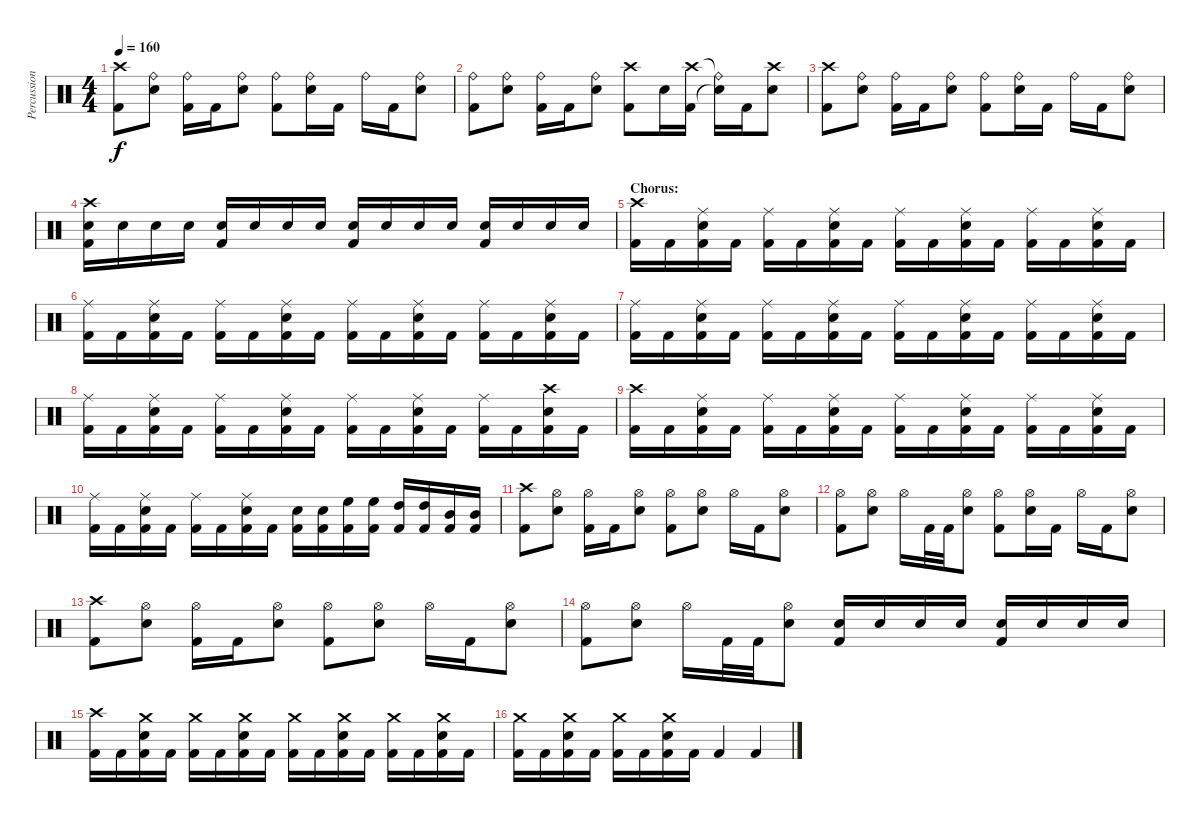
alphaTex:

\track ("Percussion" "Percussion") {instrument percussion}
\staff {score}
\articulation defaults
\ts (4 4)
\tempo 160
\clef neutral
\ks c
("Crash high (hit)" "Kick (hit) 2").8{dy f} ("Ride (bell)" "Electric Snare (hit)").8 ("Ride (bell)" "Kick (hit) 2").16 "Kick (hit) 2".16 ("Ride (bell)" "Electric Snare (hit)").8 ("Ride (bell)" "Kick (hit) 2").8 ("Ride (bell)" "Electric Snare (hit)").16 "Kick (hit) 2".16 "Ride (bell)".16 "Kick (hit) 2".16 ("Ride (bell)" "Electric Snare (hit)").8 |
("Ride (bell)" "Kick (hit) 2").8 ("Ride (bell)" "Electric Snare (hit)").8 ("Ride (bell)" "Kick (hit) 2").16 "Kick (hit) 2".16 ("Ride (bell)" "Electric Snare (hit)").8 ("Crash high (hit)" "Kick (hit) 2").8 "Electric Snare (hit)".16 ("Crash high (hit)" "Kick (hit) 2").16 ("Ride (bell)"{t} "Snare (hit)"{t}).16 "Kick (hit) 2".16 ("Crash high (hit)" "Electric Snare (hit)").8 |
("Crash high (hit)" "Kick (hit) 2").8 ("Ride (bell)" "Electric Snare (hit)").8 ("Ride (bell)" "Kick (hit) 2").16 "Kick (hit) 2".16 ("Ride (bell)" "Electric Snare (hit)").8 ("Ride (bell)" "Kick (hit) 2").8 ("Ride (bell)" "Electric Snare (hit)").16 "Kick (hit) 2".16 "Ride (bell)".16 "Kick (hit) 2".16 ("Ride (bell)" "Electric Snare (hit)").8 |
("Crash high (hit)" "Electric Snare (hit)" "Kick (hit) 2").16 "Electric Snare (hit)".16 "Electric Snare (hit)".16 "Electric Snare (hit)".16 ("Electric Snare (hit)" "Kick (hit) 2").16 "Electric Snare (hit)".16 "Electric Snare (hit)".16 "Electric Snare (hit)".16 ("Electric Snare (hit)" "Kick (hit) 2").16 "Electric Snare (hit)".16 "Electric Snare (hit)".16 "Electric Snare (hit)".16 ("Electric Snare (hit)" "Kick (hit) 2").16 "Electric Snare (hit)".16 "Electric Snare (hit)".16 "Electric Snare (hit)".16 |
\section ("" "Chorus:")
("Crash high (hit)" "Kick (hit) 2").16 "Kick (hit) 2".16 ("Ride (middle)" "Electric Snare (hit)" "Kick (hit) 2").16 "Kick (hit) 2".16 ("Ride (middle)" "Kick (hit) 2").16 "Kick (hit) 2".16 ("Ride (middle)" "Electric Snare (hit)" "Kick (hit) 2").16 "Kick (hit) 2".16 ("Ride (middle)" "Kick (hit) 2").16 "Kick (hit) 2".16 ("Ride (middle)" "Electric Snare (hit)" "Kick (hit) 2").16 "Kick (hit) 2".16 ("Ride (middle)" "Kick (hit) 2").16 "Kick (hit) 2".16 ("Ride (middle)" "Electric Snare (hit)" "Kick (hit) 2").16 "Kick (hit) 2".16 |
("Ride (middle)" "Kick (hit) 2").16 "Kick (hit) 2".16 ("Ride (middle)" "Electric Snare (hit)" "Kick (hit) 2").16 "Kick (hit) 2".16 ("Ride (middle)" "Kick (hit) 2").16 "Kick (hit) 2".16 ("Ride (middle)" "Electric Snare (hit)" "Kick (hit) 2").16 "Kick (hit) 2".16 ("Ride (middle)" "Kick (hit) 2").16 "Kick (hit) 2".16 ("Ride (middle)" "Electric Snare (hit)" "Kick (hit) 2").16 "Kick (hit) 2".16 ("Ride (middle)" "Kick (hit) 2").16 "Kick (hit) 2".16 ("Ride (middle)" "Electric Snare (hit)" "Kick (hit) 2").16 "Kick (hit) 2".16 |
("Ride (middle)" "Kick (hit) 2").16 "Kick (hit) 2".16 ("Ride (middle)" "Electric Snare (hit)" "Kick (hit) 2").16 "Kick (hit) 2".16 ("Ride (middle)" "Kick (hit) 2").16 "Kick (hit) 2".16 ("Ride (middle)" "Electric Snare (hit)" "Kick (hit) 2").16 "Kick (hit) 2".16 ("Ride (middle)" "Kick (hit) 2").16 "Kick (hit) 2".16 ("Ride (middle)" "Electric Snare (hit)" "Kick (hit) 2").16 "Kick (hit) 2".16 ("Ride (middle)" "Kick (hit) 2").16 "Kick (hit) 2".16 ("Ride (middle)" "Electric Snare (hit)" "Kick (hit) 2").16 "Kick (hit) 2".16 |
("Ride (middle)" "Kick (hit) 2").16 "Kick (hit) 2".16 ("Ride (middle)" "Electric Snare (hit)" "Kick (hit) 2").16 "Kick (hit) 2".16 ("Ride (middle)" "Kick (hit) 2").16 "Kick (hit) 2".16 ("Ride (middle)" "Electric Snare (hit)" "Kick (hit) 2").16 "Kick (hit) 2".16 ("Ride (middle)" "Kick (hit) 2").16 "Kick (hit) 2".16 ("Ride (middle)" "Electric Snare (hit)" "Kick (hit) 2").16 "Kick (hit) 2".16 ("Ride (middle)" "Kick (hit) 2").16 "Kick (hit) 2".16 ("Crash high (hit)" "Electric Snare (hit)" "Kick (hit) 2").16 "Kick (hit) 2".16 |
("Crash high (hit)" "Kick (hit) 2").16 "Kick (hit) 2".16 ("Ride (middle)" "Electric Snare (hit)" "Kick (hit) 2").16 "Kick (hit) 2".16 ("Ride (middle)" "Kick (hit) 2").16 "Kick (hit) 2".16 ("Ride (middle)" "Electric Snare (hit)" "Kick (hit) 2").16 "Kick (hit) 2".16 ("Ride (middle)" "Kick (hit) 2").16 "Kick (hit) 2".16 ("Ride (middle)" "Electric Snare (hit)" "Kick (hit) 2").16 "Kick (hit) 2".16 ("Ride (middle)" "Kick (hit) 2").16 "Kick (hit) 2".16 ("Ride (middle)" "Electric Snare (hit)" "Kick (hit) 2").16 "Kick (hit) 2".16 |
("Ride (middle)" "Kick (hit) 2").16 "Kick (hit) 2".16 ("Ride (middle)" "Electric Snare (hit)" "Kick (hit) 2").16 "Kick (hit) 2".16 ("Ride (middle)" "Kick (hit) 2").16 "Kick (hit) 2".16 ("Ride (middle)" "Electric Snare (hit)" "Kick (hit) 2").16 "Kick (hit) 2".16 ("Electric Snare (hit)" "Kick (hit) 2").16 ("Electric Snare (hit)" "Kick (hit) 2").16 ("High Floor Tom (hit)" "Kick (hit) 2").16 ("High Floor Tom (hit)" "Kick (hit) 2").16 ("High Tom (hit)" "Kick (hit) 2").16 ("High Tom (hit)" "Kick (hit) 2").16 ("Mid Tom (hit)" "Kick (hit) 2").16 ("Mid Tom (hit)" "Kick (hit) 2").16 |
("Crash high (hit)" "Kick (hit) 2").8 ("Hi-Hat (open)" "Electric Snare (hit)").8 ("Hi-Hat (open)" "Kick (hit) 2").16 "Kick (hit) 2".16 ("Hi-Hat (open)" "Electric Snare (hit)").8 ("Hi-Hat (open)" "Kick (hit) 2").8 ("Hi-Hat (open)" "Electric Snare (hit)").8 "Hi-Hat (open)".16 "Kick (hit) 2".16 ("Hi-Hat (open)" "Electric Snare (hit)").8 |
("Hi-Hat (open)" "Kick (hit) 2").8 ("Hi-Hat (open)" "Electric Snare (hit)").8 "Hi-Hat (open)".16 "Kick (hit) 2".32 "Kick (hit) 2".32 ("Hi-Hat (open)" "Electric Snare (hit)").8 ("Hi-Hat (open)" "Kick (hit) 2").8 ("Hi-Hat (open)" "Electric Snare (hit)").16 "Kick (hit) 2".16 "Hi-Hat (open)".16 "Kick (hit) 2".16 ("Hi-Hat (open)" "Electric Snare (hit)").8 |
("Crash high (hit)" "Kick (hit) 2").8 ("Hi-Hat (open)" "Electric Snare (hit)").8 ("Hi-Hat (open)" "Kick (hit) 2").16 "Kick (hit) 2".16 ("Hi-Hat (open)" "Electric Snare (hit)").8 ("Hi-Hat (open)" "Kick (hit) 2").8 ("Hi-Hat (open)" "Electric Snare (hit)").8 "Hi-Hat (open)".16 "Kick (hit) 2".16 ("Hi-Hat (open)" "Electric Snare (hit)").8 |
("Hi-Hat (open)" "Kick (hit) 2").8 ("Hi-Hat (open)" "Electric Snare (hit)").8 "Hi-Hat (open)".16 "Kick (hit) 2".32 "Kick (hit) 2".32 ("Hi-Hat (open)" "Electric Snare (hit)").8 ("Electric Snare (hit)" "Kick (hit) 2").16 "Electric Snare (hit)".16 "Electric Snare (hit)".16 "Electric Snare (hit)".16 ("Electric Snare (hit)" "Kick (hit) 2").16 "Electric Snare (hit)".16 "Electric Snare (hit)".16 "Electric Snare (hit)".16 |
("Crash high (hit)" "Kick (hit) 2").16 "Kick (hit) 2".16 ("Crash medium (hit)" "Electric Snare (hit)" "Kick (hit) 2").16 "Kick (hit) 2".16 ("Crash medium (hit)" "Kick (hit) 2").16 "Kick (hit) 2".16 ("Crash medium (hit)" "Electric Snare (hit)" "Kick (hit) 2").16 "Kick (hit) 2".16 ("Crash medium (hit)" "Kick (hit) 2").16 "Kick (hit) 2".16 ("Crash medium (hit)" "Electric Snare (hit)" "Kick (hit) 2").16 "Kick (hit) 2".16 ("Crash medium (hit)" "Kick (hit) 2").16 "Kick (hit) 2".16 ("Crash medium (hit)" "Electric Snare (hit)" "Kick (hit) 2").16 "Kick (hit) 2".16 |
("Crash medium (hit)" "Kick (hit) 2").16 "Kick (hit) 2".16 ("Crash medium (hit)" "Electric Snare (hit)" "Kick (hit) 2").16 "Kick (hit) 2".16 ("Crash medium (hit)" "Kick (hit) 2").16 "Kick (hit) 2".16 ("Crash medium (hit)" "Electric Snare (hit)" "Kick (hit) 2").16 "Kick (hit) 2".16 "Kick (hit) 2".4 "Kick (hit) 2".4
